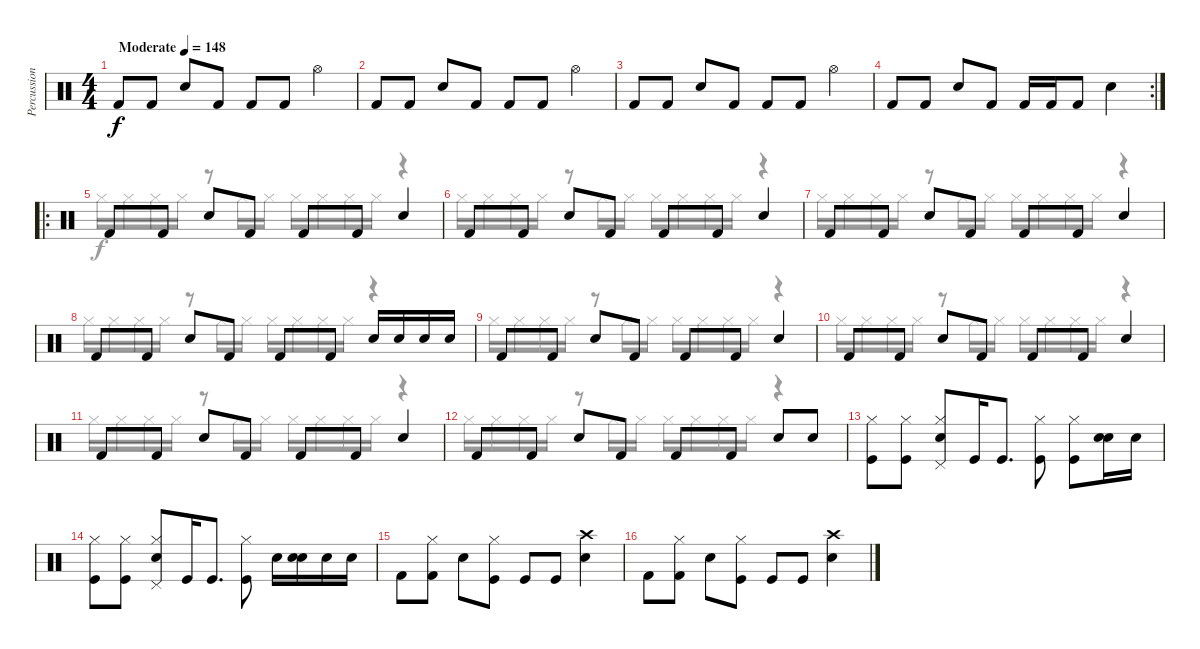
\track ("Percussion" "Percussion") {instrument percussion}
\staff {score}
\articulation defaults
\voice
\ts (4 4)
\tempo (148 "Moderate")
\clef neutral
\ks c "Kick (hit) 2".8{dy f} "Kick (hit) 2".8 "Snare (hit) 2".8 "Kick (hit) 2".8 "Kick (hit) 2".8 "Kick (hit) 2".8 "Hi-Hat (open)".4
|
"Kick (hit) 2".8 "Kick (hit) 2".8 "Snare (hit) 2".8 "Kick (hit) 2".8 "Kick (hit) 2".8 "Kick (hit) 2".8 "Hi-Hat (open)".4 |
"Kick (hit) 2".8 "Kick (hit) 2".8 "Snare (hit) 2".8 "Kick (hit) 2".8 "Kick (hit) 2".8 "Kick (hit) 2".8 "Hi-Hat (open)".4 |
\rc 2 "Kick (hit) 2".8 "Kick (hit) 2".8 "Snare (hit) 2".8 "Kick (hit) 2".8 "Kick (hit) 2".16 "Kick (hit) 2".16 "Kick (hit) 2".8 "Electric Snare (hit)".4
|
\ro "Kick (hit) 2".8 "Kick (hit) 2".8 "Snare (hit) 2".8 "Kick (hit) 2".8 "Kick (hit) 2".8 "Kick (hit) 2".8 "Electric Snare (hit)".4
|
"Kick (hit) 2".8 "Kick (hit) 2".8 "Snare (hit) 2".8 "Kick (hit) 2".8 "Kick (hit) 2".8 "Kick (hit) 2".8 "Electric Snare (hit)".4 |
"Kick (hit) 2".8 "Kick (hit) 2".8 "Snare (hit) 2".8 "Kick (hit) 2".8 "Kick (hit) 2".8 "Kick (hit) 2".8 "Electric Snare (hit)".4 |
"Kick (hit) 2".8 "Kick (hit) 2".8 "Snare (hit) 2".8 "Kick (hit) 2".8 "Kick (hit) 2".8 "Kick (hit) 2".8 "Electric Snare (hit)".16 "Electric Snare (hit)".16 "Snare (hit) 2".16 "Electric Snare (hit)".16 |
"Kick (hit) 2".8 "Kick (hit) 2".8 "Snare (hit) 2".8 "Kick (hit) 2".8 "Kick (hit) 2".8 "Kick (hit) 2".8 "Electric Snare (hit)".4 |
"Kick (hit) 2".8 "Kick (hit) 2".8 "Snare (hit) 2".8 "Kick (hit) 2".8 "Kick (hit) 2".8 "Kick (hit) 2".8 "Electric Snare (hit)".4 |
"Kick (hit) 2".8 "Kick (hit) 2".8 "Snare (hit) 2".8 "Kick (hit) 2".8 "Kick (hit) 2".8 "Kick (hit) 2".8 "Electric Snare (hit)".4 |
"Kick (hit) 2".8 "Kick (hit) 2".8 "Snare (hit) 2".8 "Kick (hit) 2".8 "Kick (hit) 2".8 "Kick (hit) 2".8 "Electric Snare (hit)".8 "Electric Snare (hit)".8 |
("Hi-Hat (closed)" "Kick (hit)").8 ("Hi-Hat (closed)" "Kick (hit)").8 ("Hi-Hat (closed)" "Pedal Hi-Hat (hit)" "Electric Snare (hit)").8 "Kick (hit)".16 "Kick (hit)".8{d} ("Hi-Hat (closed)" "Kick (hit)").8 ("Hi-Hat (closed)" "Kick (hit)").8 ("Hand Clap (hit)" "Electric Snare (hit)").16 "Snare (hit) 2".16 |
("Hi-Hat (closed)" "Kick (hit)").8 ("Hi-Hat (closed)" "Kick (hit)").8 ("Hi-Hat (closed)" "Pedal Hi-Hat (hit)" "Electric Snare (hit)").8 "Kick (hit)".16 "Kick (hit)".8{d} ("Hi-Hat (closed)" "Kick (hit)").8 "Electric Snare (hit)".16 ("Hand Clap (hit)" "Electric Snare (hit)").16 "Snare (hit) 2".16 "Electric Snare (hit)".16 |
"Kick (hit) 2".8 ("Hi-Hat (closed)" "Kick (hit) 2").8 "Snare (hit) 2".8 ("Hi-Hat (closed)" "Kick (hit)").8 "Kick (hit)".8 "Kick (hit)".8 ("Crash high (hit)" "Snare (hit) 2").4 |
"Kick (hit) 2".8 ("Hi-Hat (closed)" "Kick (hit) 2").8 "Snare (hit) 2".8 ("Hi-Hat (closed)" "Kick (hit)").8 "Kick (hit)".8 "Kick (hit)".8 ("Crash high (hit)" "Snare (hit) 2").4
\voice
\clef neutral
\ottava regular
\simile none
\ks c
|
|
|
|
"Hi-Hat (closed)".16 "Hi-Hat (closed)".16 "Hi-Hat (closed)".16 "Hi-Hat (closed)".16 r.8 "Hi-Hat (closed)".16 "Hi-Hat (closed)".16 "Hi-Hat (closed)".16 "Hi-Hat (closed)".16 "Hi-Hat (closed)".16 "Hi-Hat (closed)".16 r.4 |
"Hi-Hat (closed)".16 "Hi-Hat (closed)".16 "Hi-Hat (closed)".16 "Hi-Hat (closed)".16 r.8 "Hi-Hat (closed)".16 "Hi-Hat (closed)".16 "Hi-Hat (closed)".16 "Hi-Hat (closed)".16 "Hi-Hat (closed)".16 "Hi-Hat (closed)".16 r.4 |
"Hi-Hat (closed)".16 "Hi-Hat (closed)".16 "Hi-Hat (closed)".16 "Hi-Hat (closed)".16 r.8 "Hi-Hat (closed)".16 "Hi-Hat (closed)".16 "Hi-Hat (closed)".16 "Hi-Hat (closed)".16 "Hi-Hat (closed)".16 "Hi-Hat (closed)".16 r.4 |
"Hi-Hat (closed)".16 "Hi-Hat (closed)".16 "Hi-Hat (closed)".16 "Hi-Hat (closed)".16 r.8 "Hi-Hat (closed)".16 "Hi-Hat (closed)".16 "Hi-Hat (closed)".16 "Hi-Hat (closed)".16 "Hi-Hat (closed)".16 "Hi-Hat (closed)".16 r.4 |
"Hi-Hat (closed)".16 "Hi-Hat (closed)".16 "Hi-Hat (closed)".16 "Hi-Hat (closed)".16 r.8 "Hi-Hat (closed)".16 "Hi-Hat (closed)".16 "Hi-Hat (closed)".16 "Hi-Hat (closed)".16 "Hi-Hat (closed)".16 "Hi-Hat (closed)".16 r.4 |
"Hi-Hat (closed)".16 "Hi-Hat (closed)".16 "Hi-Hat (closed)".16 "Hi-Hat (closed)".16 r.8 "Hi-Hat (closed)".16 "Hi-Hat (closed)".16 "Hi-Hat (closed)".16 "Hi-Hat (closed)".16 "Hi-Hat (closed)".16 "Hi-Hat (closed)".16 r.4 |
"Hi-Hat (closed)".16 "Hi-Hat (closed)".16 "Hi-Hat (closed)".16 "Hi-Hat (closed)".16 r.8 "Hi-Hat (closed)".16 "Hi-Hat (closed)".16 "Hi-Hat (closed)".16 "Hi-Hat (closed)".16 "Hi-Hat (closed)".16 "Hi-Hat (closed)".16 r.4 |
"Hi-Hat (closed)".16 "Hi-Hat (closed)".16 "Hi-Hat (closed)".16 "Hi-Hat (closed)".16 r.8 "Hi-Hat (closed)".16 "Hi-Hat (closed)".16 "Hi-Hat (closed)".16 "Hi-Hat (closed)".16 "Hi-Hat (closed)".16 "Hi-Hat (closed)".16 r.4 |
|
|
|
